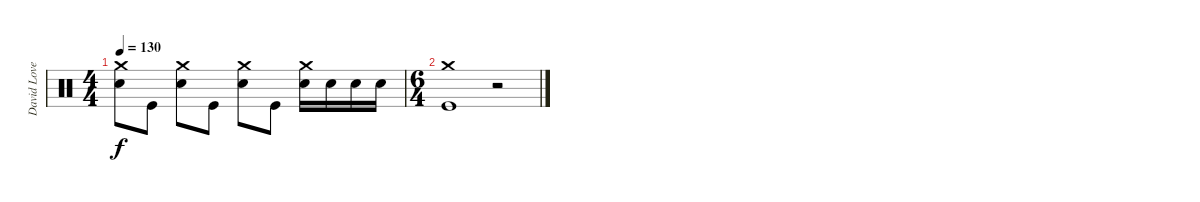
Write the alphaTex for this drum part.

\track ("David Lovering" "David Love") {instrument percussion}
\staff {score}
\articulation defaults
\ts (4 4)
\tempo 130
\clef neutral
\ks c
("Crash medium (hit)" "Snare (hit) 2").8{dy f} "Kick (hit)".8 ("Crash medium (hit)" "Snare (hit) 2").8 "Kick (hit)".8 ("Crash medium (hit)" "Snare (hit) 2").8 "Kick (hit)".8 ("Crash medium (hit)" "Snare (hit) 2").16 "Snare (hit) 2".16 "Snare (hit) 2".16 "Snare (hit) 2".16 |
\ts (6 4)
("Crash medium (hit)" "Kick (hit)").1 r.2
